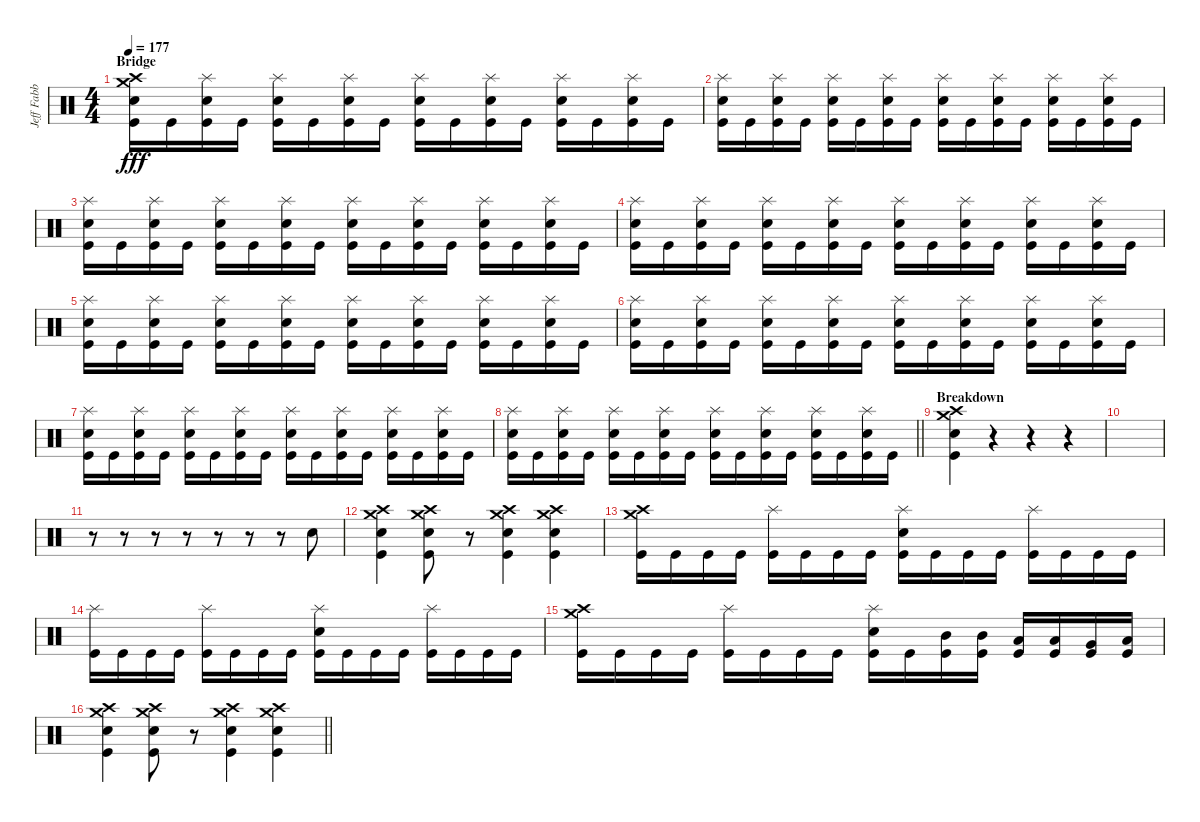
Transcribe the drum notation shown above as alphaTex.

\track ("Jeff Fabb (Drums)" "Jeff Fabb ") {instrument percussion}
\staff {score}
\articulation defaults
\ts (4 4)
\section ("" "Bridge")
\tempo 177
\clef neutral
\ks c
("Crash high (hit)" "Crash medium (hit)" "Electric Snare (hit)" "Kick (hit)").16{dy fff} "Kick (hit)".16 ("Splash (hit)" "Electric Snare (hit)" "Kick (hit)").16 "Kick (hit)".16 ("Splash (hit)" "Electric Snare (hit)" "Kick (hit)").16 "Kick (hit)".16 ("Splash (hit)" "Electric Snare (hit)" "Kick (hit)").16 "Kick (hit)".16 ("Splash (hit)" "Electric Snare (hit)" "Kick (hit)").16 "Kick (hit)".16 ("Splash (hit)" "Electric Snare (hit)" "Kick (hit)").16 "Kick (hit)".16 ("Splash (hit)" "Electric Snare (hit)" "Kick (hit)").16 "Kick (hit)".16 ("Splash (hit)" "Electric Snare (hit)" "Kick (hit)").16 "Kick (hit)".16 |
("Splash (hit)" "Electric Snare (hit)" "Kick (hit)").16 "Kick (hit)".16 ("Splash (hit)" "Electric Snare (hit)" "Kick (hit)").16 "Kick (hit)".16 ("Splash (hit)" "Electric Snare (hit)" "Kick (hit)").16 "Kick (hit)".16 ("Splash (hit)" "Electric Snare (hit)" "Kick (hit)").16 "Kick (hit)".16 ("Splash (hit)" "Electric Snare (hit)" "Kick (hit)").16 "Kick (hit)".16 ("Splash (hit)" "Electric Snare (hit)" "Kick (hit)").16 "Kick (hit)".16 ("Splash (hit)" "Electric Snare (hit)" "Kick (hit)").16 "Kick (hit)".16 ("Splash (hit)" "Electric Snare (hit)" "Kick (hit)").16 "Kick (hit)".16 |
("Splash (hit)" "Electric Snare (hit)" "Kick (hit)").16 "Kick (hit)".16 ("Splash (hit)" "Electric Snare (hit)" "Kick (hit)").16 "Kick (hit)".16 ("Splash (hit)" "Electric Snare (hit)" "Kick (hit)").16 "Kick (hit)".16 ("Splash (hit)" "Electric Snare (hit)" "Kick (hit)").16 "Kick (hit)".16 ("Splash (hit)" "Electric Snare (hit)" "Kick (hit)").16 "Kick (hit)".16 ("Splash (hit)" "Electric Snare (hit)" "Kick (hit)").16 "Kick (hit)".16 ("Splash (hit)" "Electric Snare (hit)" "Kick (hit)").16 "Kick (hit)".16 ("Splash (hit)" "Electric Snare (hit)" "Kick (hit)").16 "Kick (hit)".16 |
("Splash (hit)" "Electric Snare (hit)" "Kick (hit)").16 "Kick (hit)".16 ("Splash (hit)" "Electric Snare (hit)" "Kick (hit)").16 "Kick (hit)".16 ("Splash (hit)" "Electric Snare (hit)" "Kick (hit)").16 "Kick (hit)".16 ("Splash (hit)" "Electric Snare (hit)" "Kick (hit)").16 "Kick (hit)".16 ("Splash (hit)" "Electric Snare (hit)" "Kick (hit)").16 "Kick (hit)".16 ("Splash (hit)" "Electric Snare (hit)" "Kick (hit)").16 "Kick (hit)".16 ("Splash (hit)" "Electric Snare (hit)" "Kick (hit)").16 "Kick (hit)".16 ("Splash (hit)" "Electric Snare (hit)" "Kick (hit)").16 "Kick (hit)".16 |
("Splash (hit)" "Electric Snare (hit)" "Kick (hit)").16 "Kick (hit)".16 ("Splash (hit)" "Electric Snare (hit)" "Kick (hit)").16 "Kick (hit)".16 ("Splash (hit)" "Electric Snare (hit)" "Kick (hit)").16 "Kick (hit)".16 ("Splash (hit)" "Electric Snare (hit)" "Kick (hit)").16 "Kick (hit)".16 ("Splash (hit)" "Electric Snare (hit)" "Kick (hit)").16 "Kick (hit)".16 ("Splash (hit)" "Electric Snare (hit)" "Kick (hit)").16 "Kick (hit)".16 ("Splash (hit)" "Electric Snare (hit)" "Kick (hit)").16 "Kick (hit)".16 ("Splash (hit)" "Electric Snare (hit)" "Kick (hit)").16 "Kick (hit)".16 |
("Splash (hit)" "Electric Snare (hit)" "Kick (hit)").16 "Kick (hit)".16 ("Splash (hit)" "Electric Snare (hit)" "Kick (hit)").16 "Kick (hit)".16 ("Splash (hit)" "Electric Snare (hit)" "Kick (hit)").16 "Kick (hit)".16 ("Splash (hit)" "Electric Snare (hit)" "Kick (hit)").16 "Kick (hit)".16 ("Splash (hit)" "Electric Snare (hit)" "Kick (hit)").16 "Kick (hit)".16 ("Splash (hit)" "Electric Snare (hit)" "Kick (hit)").16 "Kick (hit)".16 ("Splash (hit)" "Electric Snare (hit)" "Kick (hit)").16 "Kick (hit)".16 ("Splash (hit)" "Electric Snare (hit)" "Kick (hit)").16 "Kick (hit)".16 |
("Splash (hit)" "Electric Snare (hit)" "Kick (hit)").16 "Kick (hit)".16 ("Splash (hit)" "Electric Snare (hit)" "Kick (hit)").16 "Kick (hit)".16 ("Splash (hit)" "Electric Snare (hit)" "Kick (hit)").16 "Kick (hit)".16 ("Splash (hit)" "Electric Snare (hit)" "Kick (hit)").16 "Kick (hit)".16 ("Splash (hit)" "Electric Snare (hit)" "Kick (hit)").16 "Kick (hit)".16 ("Splash (hit)" "Electric Snare (hit)" "Kick (hit)").16 "Kick (hit)".16 ("Splash (hit)" "Electric Snare (hit)" "Kick (hit)").16 "Kick (hit)".16 ("Splash (hit)" "Electric Snare (hit)" "Kick (hit)").16 "Kick (hit)".16 |
\barLineRight lightlight
("Splash (hit)" "Electric Snare (hit)" "Kick (hit)").16 "Kick (hit)".16 ("Splash (hit)" "Electric Snare (hit)" "Kick (hit)").16 "Kick (hit)".16 ("Splash (hit)" "Electric Snare (hit)" "Kick (hit)").16 "Kick (hit)".16 ("Splash (hit)" "Electric Snare (hit)" "Kick (hit)").16 "Kick (hit)".16 ("Splash (hit)" "Electric Snare (hit)" "Kick (hit)").16 "Kick (hit)".16 ("Splash (hit)" "Electric Snare (hit)" "Kick (hit)").16 "Kick (hit)".16 ("Splash (hit)" "Electric Snare (hit)" "Kick (hit)").16 "Kick (hit)".16 ("Splash (hit)" "Electric Snare (hit)" "Kick (hit)").16 "Kick (hit)".16 |
\section ("" "Breakdown")
("Crash high (hit)" "Crash medium (hit)" "Electric Snare (hit)" "Kick (hit)").4 r.4 r.4 r.4 |
|
r.8 r.8 r.8 r.8 r.8 r.8 r.8 "Electric Snare (hit)".8 |
("Crash high (hit)" "Crash medium (hit)" "Electric Snare (hit)" "Kick (hit)").4 ("Crash high (hit)" "Crash medium (hit)" "Electric Snare (hit)" "Kick (hit)").8 r.8 ("Crash high (hit)" "Crash medium (hit)" "Electric Snare (hit)" "Kick (hit)").4 ("Crash high (hit)" "Crash medium (hit)" "Electric Snare (hit)" "Kick (hit)").4 |
("Crash high (hit)" "Crash medium (hit)" "Kick (hit)").16 "Kick (hit)".16 "Kick (hit)".16 "Kick (hit)".16 ("Splash (hit)" "Kick (hit)").16 "Kick (hit)".16 "Kick (hit)".16 "Kick (hit)".16 ("Splash (hit)" "Electric Snare (hit)" "Kick (hit)").16 "Kick (hit)".16 "Kick (hit)".16 "Kick (hit)".16 ("Splash (hit)" "Kick (hit)").16 "Kick (hit)".16 "Kick (hit)".16 "Kick (hit)".16 |
("Splash (hit)" "Kick (hit)").16 "Kick (hit)".16 "Kick (hit)".16 "Kick (hit)".16 ("Splash (hit)" "Kick (hit)").16 "Kick (hit)".16 "Kick (hit)".16 "Kick (hit)".16 ("Splash (hit)" "Electric Snare (hit)" "Kick (hit)").16 "Kick (hit)".16 "Kick (hit)".16 "Kick (hit)".16 ("Splash (hit)" "Kick (hit)").16 "Kick (hit)".16 "Kick (hit)".16 "Kick (hit)".16 |
("Crash high (hit)" "Crash medium (hit)" "Kick (hit)").16 "Kick (hit)".16 "Kick (hit)".16 "Kick (hit)".16 ("Splash (hit)" "Kick (hit)").16 "Kick (hit)".16 "Kick (hit)".16 "Kick (hit)".16 ("Splash (hit)" "Electric Snare (hit)" "Kick (hit)").16 "Kick (hit)".16 ("Mid Tom (hit)" "Kick (hit)").16 ("Mid Tom (hit)" "Kick (hit)").16 ("Low Tom (hit)" "Kick (hit)").16 ("Low Tom (hit)" "Kick (hit)").16 ("Very Low Tom (hit)" "Kick (hit)").16 ("Low Floor Tom (hit)" "Kick (hit)").16 |
\barLineRight lightlight
("Crash high (hit)" "Crash medium (hit)" "Electric Snare (hit)" "Kick (hit)").4 ("Crash high (hit)" "Crash medium (hit)" "Electric Snare (hit)" "Kick (hit)").8 r.8 ("Crash high (hit)" "Crash medium (hit)" "Electric Snare (hit)" "Kick (hit)").4 ("Crash high (hit)" "Crash medium (hit)" "Electric Snare (hit)" "Kick (hit)").4
